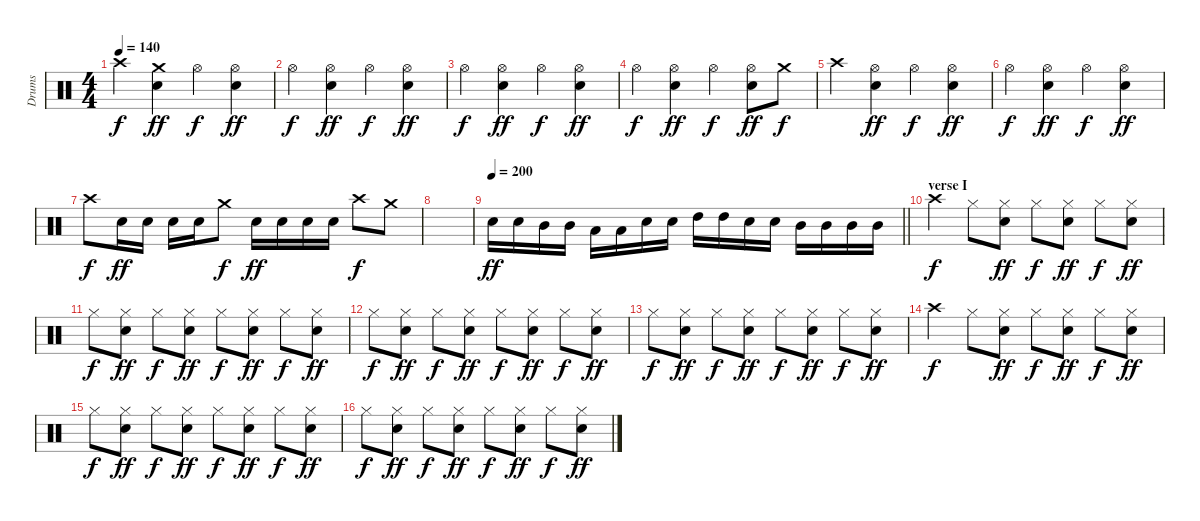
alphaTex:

\track ("Drums" "Drums") {instrument percussion}
\staff {score}
\articulation defaults
\ts (4 4)
\tempo 140
\clef neutral
\ks c "Crash high (hit)".4{dy f}
("Crash medium (hit)" "Snare (hit) 2").4{dy ff} "Hi-Hat (open)".4{dy f} ("Hi-Hat (open)" "Snare (hit) 2").4{dy ff} |
"Hi-Hat (open)".4{dy f} ("Hi-Hat (open)" "Snare (hit) 2").4{dy ff} "Hi-Hat (open)".4{dy f} ("Hi-Hat (open)" "Snare (hit) 2").4{dy ff} |
"Hi-Hat (open)".4{dy f} ("Hi-Hat (open)" "Snare (hit) 2").4{dy ff} "Hi-Hat (open)".4{dy f} ("Hi-Hat (open)" "Snare (hit) 2").4{dy ff} |
"Hi-Hat (open)".4{dy f} ("Hi-Hat (open)" "Snare (hit) 2").4{dy ff} "Hi-Hat (open)".4{dy f} ("Hi-Hat (open)" "Snare (hit) 2").8{dy ff} "Crash medium (hit)".8{dy f} |
"Crash high (hit)".4 ("Hi-Hat (open)" "Snare (hit) 2").4{dy ff} "Hi-Hat (open)".4{dy f} ("Hi-Hat (open)" "Snare (hit) 2").4{dy ff} |
"Hi-Hat (open)".4{dy f} ("Hi-Hat (open)" "Snare (hit) 2").4{dy ff} "Hi-Hat (open)".4{dy f} ("Hi-Hat (open)" "Snare (hit) 2").4{dy ff} |
"Crash high (hit)".8{dy f} "Snare (hit) 2".16{dy ff} "Snare (hit) 2".16 "Snare (hit) 2".16 "Snare (hit) 2".16 "Crash medium (hit)".8{dy f} "Snare (hit) 2".16{dy ff} "Snare (hit) 2".16 "Snare (hit) 2".16 "Snare (hit) 2".16 "Crash high (hit)".8{dy f} "Crash medium (hit)".8 |
|
\tempo 200
\barLineRight lightlight "Snare (hit) 2".16{dy ff} "Snare (hit) 2".16 "Mid Tom (hit)".16 "Mid Tom (hit)".16 "Low Tom (hit)".16 "Low Tom (hit)".16 "Snare (hit) 2".16 "Snare (hit) 2".16 "High Tom (hit)".16 "High Tom (hit)".16 "Snare (hit) 2".16 "Snare (hit) 2".16 "Mid Tom (hit)".16 "Mid Tom (hit)".16 "Mid Tom (hit)".16 "Mid Tom (hit)".16
|
\section ("" "verse I")
"Crash high (hit)".4{dy f} "Hi-Hat (closed)".8 ("Hi-Hat (closed)" "Snare (hit) 2").8{dy ff} "Hi-Hat (closed)".8{dy f} ("Hi-Hat (closed)" "Snare (hit) 2").8{dy ff} "Hi-Hat (closed)".8{dy f} ("Hi-Hat (closed)" "Snare (hit) 2").8{dy ff} |
"Hi-Hat (closed)".8{dy f} ("Hi-Hat (closed)" "Snare (hit) 2").8{dy ff} "Hi-Hat (closed)".8{dy f} ("Hi-Hat (closed)" "Snare (hit) 2").8{dy ff} "Hi-Hat (closed)".8{dy f} ("Hi-Hat (closed)" "Snare (hit) 2").8{dy ff} "Hi-Hat (closed)".8{dy f} ("Hi-Hat (closed)" "Snare (hit) 2").8{dy ff} |
"Hi-Hat (closed)".8{dy f} ("Hi-Hat (closed)" "Snare (hit) 2").8{dy ff} "Hi-Hat (closed)".8{dy f} ("Hi-Hat (closed)" "Snare (hit) 2").8{dy ff} "Hi-Hat (closed)".8{dy f} ("Hi-Hat (closed)" "Snare (hit) 2").8{dy ff} "Hi-Hat (closed)".8{dy f} ("Hi-Hat (closed)" "Snare (hit) 2").8{dy ff} |
"Hi-Hat (closed)".8{dy f} ("Hi-Hat (closed)" "Snare (hit) 2").8{dy ff} "Hi-Hat (closed)".8{dy f} ("Hi-Hat (closed)" "Snare (hit) 2").8{dy ff} "Hi-Hat (closed)".8{dy f} ("Hi-Hat (closed)" "Snare (hit) 2").8{dy ff} "Hi-Hat (closed)".8{dy f} ("Hi-Hat (closed)" "Snare (hit) 2").8{dy ff} |
"Crash high (hit)".4{dy f} "Hi-Hat (closed)".8 ("Hi-Hat (closed)" "Snare (hit) 2").8{dy ff} "Hi-Hat (closed)".8{dy f} ("Hi-Hat (closed)" "Snare (hit) 2").8{dy ff} "Hi-Hat (closed)".8{dy f} ("Hi-Hat (closed)" "Snare (hit) 2").8{dy ff} |
"Hi-Hat (closed)".8{dy f} ("Hi-Hat (closed)" "Snare (hit) 2").8{dy ff} "Hi-Hat (closed)".8{dy f} ("Hi-Hat (closed)" "Snare (hit) 2").8{dy ff} "Hi-Hat (closed)".8{dy f} ("Hi-Hat (closed)" "Snare (hit) 2").8{dy ff} "Hi-Hat (closed)".8{dy f} ("Hi-Hat (closed)" "Snare (hit) 2").8{dy ff} |
"Hi-Hat (closed)".8{dy f} ("Hi-Hat (closed)" "Snare (hit) 2").8{dy ff} "Hi-Hat (closed)".8{dy f} ("Hi-Hat (closed)" "Snare (hit) 2").8{dy ff} "Hi-Hat (closed)".8{dy f} ("Hi-Hat (closed)" "Snare (hit) 2").8{dy ff} "Hi-Hat (closed)".8{dy f} ("Hi-Hat (closed)" "Snare (hit) 2").8{dy ff}
